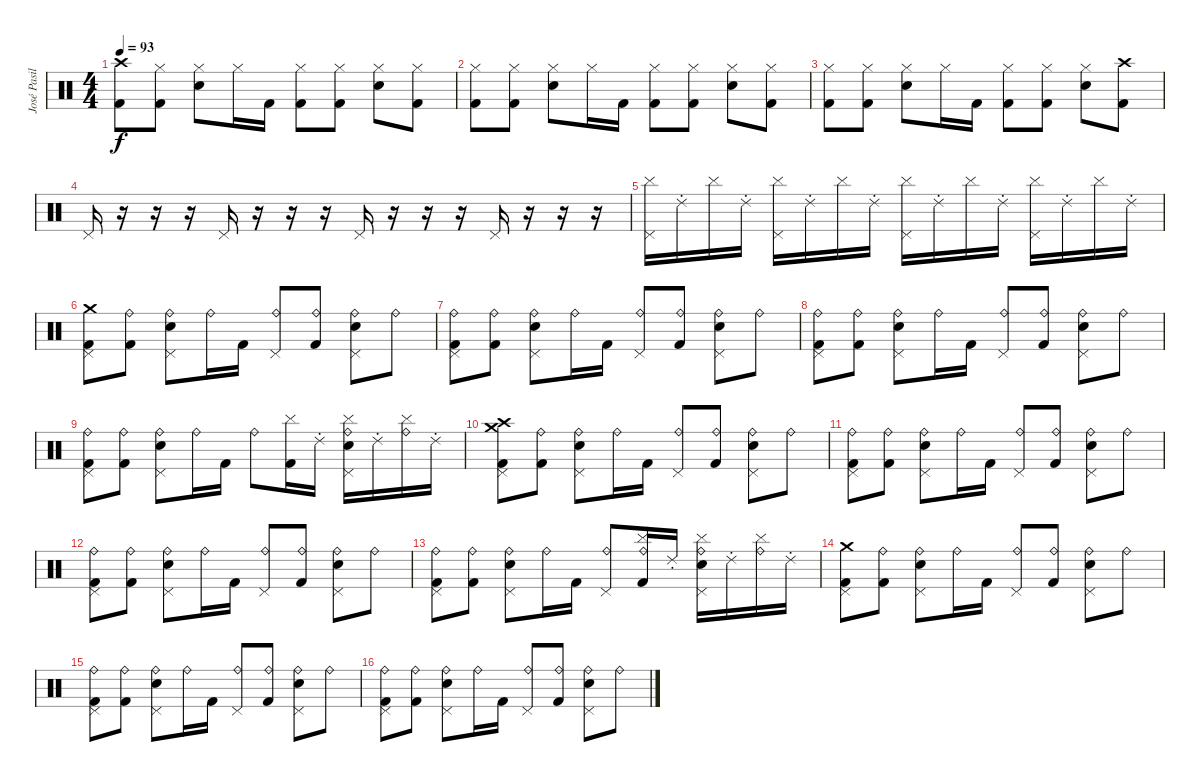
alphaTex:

\track ("José Pasillas/DJ Kilmore" "José Pasil") {instrument percussion}
\staff {score}
\articulation defaults
\ts (4 4)
\tempo 93
\clef neutral
\ks c
("Crash high (hit)" "Kick (hit) 2").8{dy f} ("Hi-Hat (closed)" "Kick (hit) 2").8 ("Hi-Hat (closed)" "Electric Snare (hit)").8 "Hi-Hat (closed)".16 "Kick (hit) 2".16 ("Hi-Hat (closed)" "Kick (hit) 2").8 ("Hi-Hat (closed)" "Kick (hit) 2").8 ("Hi-Hat (closed)" "Electric Snare (hit)").8 ("Hi-Hat (closed)" "Kick (hit) 2").8 |
("Hi-Hat (closed)" "Kick (hit) 2").8 ("Hi-Hat (closed)" "Kick (hit) 2").8 ("Hi-Hat (closed)" "Electric Snare (hit)").8 "Hi-Hat (closed)".16 "Kick (hit) 2".16 ("Hi-Hat (closed)" "Kick (hit) 2").8 ("Hi-Hat (closed)" "Kick (hit) 2").8 ("Hi-Hat (closed)" "Electric Snare (hit)").8 ("Hi-Hat (closed)" "Kick (hit) 2").8 |
("Hi-Hat (closed)" "Kick (hit) 2").8 ("Hi-Hat (closed)" "Kick (hit) 2").8 ("Hi-Hat (closed)" "Electric Snare (hit)").8 "Hi-Hat (closed)".16 "Kick (hit) 2".16 ("Hi-Hat (closed)" "Kick (hit) 2").8 ("Hi-Hat (closed)" "Kick (hit) 2").8 ("Hi-Hat (closed)" "Electric Snare (hit)").8 ("Crash high (hit)" "Kick (hit) 2").8 |
"Pedal Hi-Hat (hit)".16 r.16 r.16 r.16 "Pedal Hi-Hat (hit)".16 r.16 r.16 r.16 "Pedal Hi-Hat (hit)".16 r.16 r.16 r.16 "Pedal Hi-Hat (hit)".16 r.16 r.16 r.16 |
("Cymbal (hit)" "Pedal Hi-Hat (hit)").16 "Ride (choke) 2".16 "Cymbal (hit)".16 "Ride (choke) 2".16 ("Cymbal (hit)" "Pedal Hi-Hat (hit)").16 "Ride (choke) 2".16 "Cymbal (hit)".16 "Ride (choke) 2".16 ("Cymbal (hit)" "Pedal Hi-Hat (hit)").16 "Ride (choke) 2".16 "Cymbal (hit)".16 "Ride (choke) 2".16 ("Cymbal (hit)" "Pedal Hi-Hat (hit)").16 "Ride (choke) 2".16 "Cymbal (hit)".16 "Ride (choke) 2".16 |
("Crash medium (hit)" "Kick (hit) 2" "Pedal Hi-Hat (hit)").8 ("Ride (bell)" "Kick (hit) 2").8 ("Ride (bell)" "Electric Snare (hit)" "Pedal Hi-Hat (hit)").8 "Ride (bell)".16 "Kick (hit) 2".16 ("Ride (bell)" "Pedal Hi-Hat (hit)").8 ("Ride (bell)" "Kick (hit) 2").8 ("Ride (bell)" "Electric Snare (hit)" "Pedal Hi-Hat (hit)").8 "Ride (bell)".8 |
("Ride (bell)" "Kick (hit) 2" "Pedal Hi-Hat (hit)").8 ("Ride (bell)" "Kick (hit) 2").8 ("Ride (bell)" "Electric Snare (hit)" "Pedal Hi-Hat (hit)").8 "Ride (bell)".16 "Kick (hit) 2".16 ("Ride (bell)" "Pedal Hi-Hat (hit)").8 ("Ride (bell)" "Kick (hit) 2").8 ("Ride (bell)" "Electric Snare (hit)" "Pedal Hi-Hat (hit)").8 "Ride (bell)".8 |
("Ride (bell)" "Kick (hit) 2" "Pedal Hi-Hat (hit)").8 ("Ride (bell)" "Kick (hit) 2").8 ("Ride (bell)" "Electric Snare (hit)" "Pedal Hi-Hat (hit)").8 "Ride (bell)".16 "Kick (hit) 2".16 ("Ride (bell)" "Pedal Hi-Hat (hit)").8 ("Ride (bell)" "Kick (hit) 2").8 ("Ride (bell)" "Electric Snare (hit)" "Pedal Hi-Hat (hit)").8 "Ride (bell)".8 |
("Ride (bell)" "Kick (hit) 2" "Pedal Hi-Hat (hit)").8 ("Ride (bell)" "Kick (hit) 2").8 ("Ride (bell)" "Electric Snare (hit)" "Pedal Hi-Hat (hit)").8 "Ride (bell)".16 "Kick (hit) 2".16 "Ride (bell)".8 ("Cymbal (hit)" "Kick (hit) 2").16 "Ride (choke) 2".16 ("Ride (bell)" "Cymbal (hit)" "Electric Snare (hit)" "Pedal Hi-Hat (hit)").16 "Ride (choke) 2".16 ("Ride (bell)" "Cymbal (hit)").16 "Ride (choke) 2".16 |
("Crash high (hit)" "Crash medium (hit)" "Kick (hit) 2" "Pedal Hi-Hat (hit)").8 ("Ride (bell)" "Kick (hit) 2").8 ("Ride (bell)" "Electric Snare (hit)" "Pedal Hi-Hat (hit)").8 "Ride (bell)".16 "Kick (hit) 2".16 ("Ride (bell)" "Pedal Hi-Hat (hit)").8 ("Ride (bell)" "Kick (hit) 2").8 ("Ride (bell)" "Electric Snare (hit)" "Pedal Hi-Hat (hit)").8 "Ride (bell)".8 |
("Ride (bell)" "Kick (hit) 2" "Pedal Hi-Hat (hit)").8 ("Ride (bell)" "Kick (hit) 2").8 ("Ride (bell)" "Electric Snare (hit)" "Pedal Hi-Hat (hit)").8 "Ride (bell)".16 "Kick (hit) 2".16 ("Ride (bell)" "Pedal Hi-Hat (hit)").8 ("Ride (bell)" "Kick (hit) 2").8 ("Ride (bell)" "Electric Snare (hit)" "Pedal Hi-Hat (hit)").8 "Ride (bell)".8 |
("Ride (bell)" "Kick (hit) 2" "Pedal Hi-Hat (hit)").8 ("Ride (bell)" "Kick (hit) 2").8 ("Ride (bell)" "Electric Snare (hit)" "Pedal Hi-Hat (hit)").8 "Ride (bell)".16 "Kick (hit) 2".16 ("Ride (bell)" "Pedal Hi-Hat (hit)").8 ("Ride (bell)" "Kick (hit) 2").8 ("Ride (bell)" "Electric Snare (hit)" "Pedal Hi-Hat (hit)").8 "Ride (bell)".8 |
("Ride (bell)" "Kick (hit) 2" "Pedal Hi-Hat (hit)").8 ("Ride (bell)" "Kick (hit) 2").8 ("Ride (bell)" "Electric Snare (hit)" "Pedal Hi-Hat (hit)").8 "Ride (bell)".16 "Kick (hit) 2".16 ("Ride (bell)" "Pedal Hi-Hat (hit)").8 ("Ride (bell)" "Cymbal (hit)" "Kick (hit) 2").16 "Ride (choke) 2".16 ("Ride (bell)" "Cymbal (hit)" "Electric Snare (hit)" "Pedal Hi-Hat (hit)").16 "Ride (choke) 2".16 ("Ride (bell)" "Cymbal (hit)").16 "Ride (choke) 2".16 |
("Crash medium (hit)" "Kick (hit) 2" "Pedal Hi-Hat (hit)").8 ("Ride (bell)" "Kick (hit) 2").8 ("Ride (bell)" "Electric Snare (hit)" "Pedal Hi-Hat (hit)").8 "Ride (bell)".16 "Kick (hit) 2".16 ("Ride (bell)" "Pedal Hi-Hat (hit)").8 ("Ride (bell)" "Kick (hit) 2").8 ("Ride (bell)" "Electric Snare (hit)" "Pedal Hi-Hat (hit)").8 "Ride (bell)".8 |
("Ride (bell)" "Kick (hit) 2" "Pedal Hi-Hat (hit)").8 ("Ride (bell)" "Kick (hit) 2").8 ("Ride (bell)" "Electric Snare (hit)" "Pedal Hi-Hat (hit)").8 "Ride (bell)".16 "Kick (hit) 2".16 ("Ride (bell)" "Pedal Hi-Hat (hit)").8 ("Ride (bell)" "Kick (hit) 2").8 ("Ride (bell)" "Electric Snare (hit)" "Pedal Hi-Hat (hit)").8 "Ride (bell)".8 |
("Ride (bell)" "Kick (hit) 2" "Pedal Hi-Hat (hit)").8 ("Ride (bell)" "Kick (hit) 2").8 ("Ride (bell)" "Electric Snare (hit)" "Pedal Hi-Hat (hit)").8 "Ride (bell)".16 "Kick (hit) 2".16 ("Ride (bell)" "Pedal Hi-Hat (hit)").8 ("Ride (bell)" "Kick (hit) 2").8 ("Ride (bell)" "Electric Snare (hit)" "Pedal Hi-Hat (hit)").8 "Ride (bell)".8
